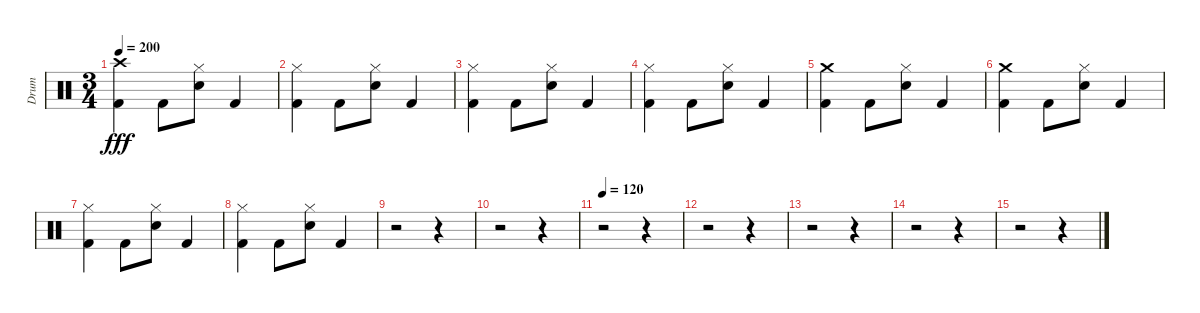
\track ("Drum" "Drum") {instrument percussion}
\staff {score}
\articulation defaults
\ts (3 4)
\tempo 200
\clef neutral
\ks c
("Crash high (hit)" "Kick (hit) 2").4{dy fff} "Kick (hit) 2".8 ("Hi-Hat (closed)" "Snare (hit) 2").8 "Kick (hit) 2".4 |
("Hi-Hat (closed)" "Kick (hit) 2").4 "Kick (hit) 2".8 ("Hi-Hat (closed)" "Snare (hit) 2").8 "Kick (hit) 2".4 |
("Hi-Hat (closed)" "Kick (hit) 2").4 "Kick (hit) 2".8 ("Hi-Hat (closed)" "Snare (hit) 2").8 "Kick (hit) 2".4 |
("Hi-Hat (closed)" "Kick (hit) 2").4 "Kick (hit) 2".8 ("Hi-Hat (closed)" "Snare (hit) 2").8 "Kick (hit) 2".4 |
("Crash medium (hit)" "Kick (hit) 2").4 "Kick (hit) 2".8 ("Hi-Hat (closed)" "Snare (hit) 2").8 "Kick (hit) 2".4 |
("Crash medium (hit)" "Kick (hit) 2").4 "Kick (hit) 2".8 ("Hi-Hat (closed)" "Snare (hit) 2").8 "Kick (hit) 2".4 |
("Hi-Hat (closed)" "Kick (hit) 2").4 "Kick (hit) 2".8 ("Hi-Hat (closed)" "Snare (hit) 2").8 "Kick (hit) 2".4 |
("Hi-Hat (closed)" "Kick (hit) 2").4 "Kick (hit) 2".8 ("Hi-Hat (closed)" "Snare (hit) 2").8 "Kick (hit) 2".4 |
r.2 r.4 |
r.2 r.4 |
\tempo 120
r.2 r.4 |
r.2 r.4 |
r.2 r.4 |
r.2 r.4 |
r.2 r.4
